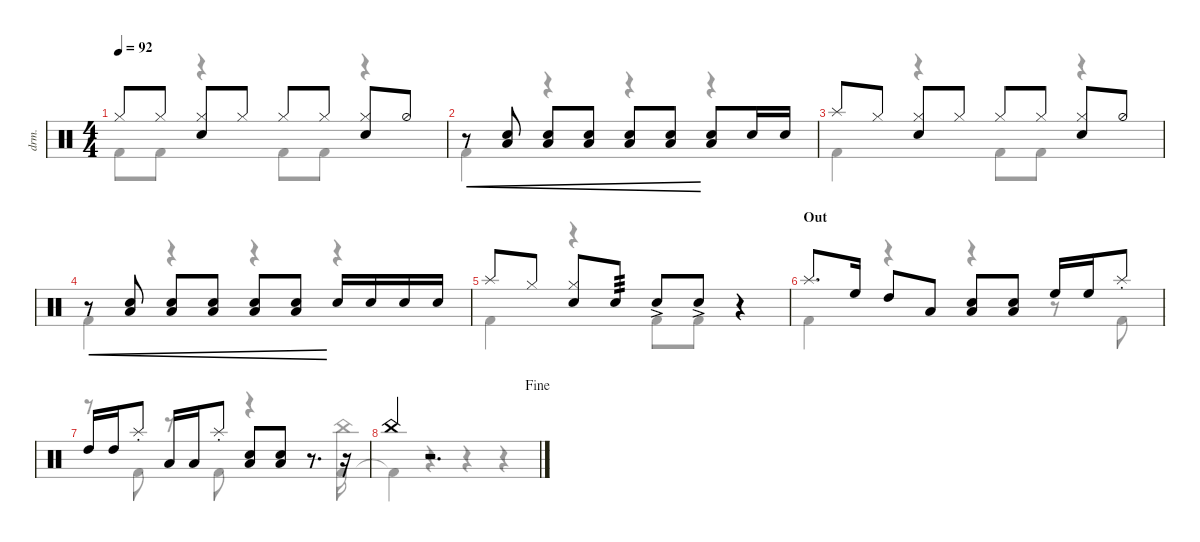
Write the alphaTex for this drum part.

\defaultSystemsLayout 4
\hideDynamics
\bracketExtendMode nobrackets
\track ("Drumkit" "drm.") {defaultSystemsLayout 4 instrument percussion}
\staff {score}
\articulation defaults
\voice
\ts (4 4)
\tempo 92
\clef neutral
\ks c "Hi-Hat (closed)".8{dy mf beam Up} "Hi-Hat (closed)".8{beam Up}
("Hi-Hat (closed)" "Snare (hit) 2").8{beam Up} "Hi-Hat (closed)".8{beam Up} "Hi-Hat (closed)".8{beam Up} "Hi-Hat (closed)".8{beam Up} ("Hi-Hat (closed)" "Snare (hit) 2").8{beam Up} "Hi-Hat (half)".8{beam Up} |
r.8{cre beam Up} ("Low Tom (hit)" "Snare (hit) 2").8{cre beam Up} ("Low Tom (hit)" "Snare (hit) 2").8{cre beam Up} ("Low Tom (hit)" "Snare (hit) 2").8{cre beam Up} ("Low Tom (hit)" "Snare (hit) 2").8{cre beam Up} ("Low Tom (hit)" "Snare (hit) 2").8{cre beam Up} ("Snare (hit) 2" "Low Tom (hit)").8{beam Up} "Snare (hit) 2".16{beam Up} "Snare (hit) 2".16{beam Up} |
"Splash (hit)".8{beam Up} "Hi-Hat (closed)".8{beam Up} ("Hi-Hat (closed)" "Snare (hit) 2").8{beam Up} "Hi-Hat (closed)".8{beam Up} "Hi-Hat (closed)".8{beam Up} "Hi-Hat (closed)".8{beam Up} ("Hi-Hat (closed)" "Snare (hit) 2").8{beam Up} "Hi-Hat (half)".8{beam Up} |
r.8{cre beam Up} ("Low Tom (hit)" "Snare (hit) 2").8{cre beam Up} ("Low Tom (hit)" "Snare (hit) 2").8{cre beam Up} ("Low Tom (hit)" "Snare (hit) 2").8{cre beam Up} ("Low Tom (hit)" "Snare (hit) 2").8{cre beam Up} ("Low Tom (hit)" "Snare (hit) 2").8{cre beam Up} "Snare (hit) 2".16{beam Up} "Snare (hit) 2".16{beam Up} "Snare (hit) 2".16{beam Up} "Snare (hit) 2".16{beam Up} |
"Splash (hit)".8{beam Up} "Hi-Hat (closed)".8{beam Up} ("Hi-Hat (closed)" "Snare (hit) 2").8{beam Up} "Snare (hit) 2".8{tp 3 beam Up} "Snare (hit) 2"{ac}.8{beam Up} "Snare (hit) 2"{ac}.8{beam Up} r.4{beam Up} |
\section ("" "Out")
"Splash (hit)".8{d beam Up} "High Floor Tom (hit)".16{beam Up} "High Tom (hit)".8{beam Up} "Low Tom (hit)".8{beam Up} ("Low Tom (hit)" "Snare (hit) 2").8{beam Up} ("Low Tom (hit)" "Snare (hit) 2").8{beam Up} "High Floor Tom (hit)".16{beam Up} "High Floor Tom (hit)".16{beam Up} "Splash (choke)".8{beam Up} |
"High Tom (hit)".16{beam Up} "High Tom (hit)".16{beam Up} "Splash (choke)".8{beam Up} "Low Tom (hit)".16{beam Up} "Low Tom (hit)".16{beam Up} "Splash (choke)".8{beam Up} ("Snare (hit) 2" "Low Tom (hit)").8{beam Up} ("Low Tom (hit)" "Snare (hit) 2").8{beam Up} r.8{d beam Up} r.16{beam Up} |
\jump fine "China (hit)".4{beam Up}
r.2{d beam Up}
\voice
\clef neutral
\ottava regular
\simile none
\ks c "Kick (hit) 2".8{dy mf beam Down} "Kick (hit) 2".8{beam Down}
r.4{beam Down} "Kick (hit) 2".8{beam Down} "Kick (hit) 2".8{beam Down} r.4{beam Down} |
"Kick (hit) 2".4{beam Down} r.4{beam Down} r.4{beam Down} r.4{beam Down} |
"Kick (hit) 2".4{beam Down} r.4{beam Down} "Kick (hit) 2".8{beam Down} "Kick (hit) 2".8{beam Down} r.4{beam Down} |
"Kick (hit) 2".4{beam Down} r.4{beam Down} r.4{beam Down} r.4{beam Down} |
"Kick (hit) 2".4{beam Down} r.4{beam Down} "Kick (hit) 2".8{beam Down} "Kick (hit) 2".8{beam Down} r.4{beam Down} |
"Kick (hit) 2".4{beam Down} r.4{beam Down} r.4{beam Down} r.8{beam Down} "Kick (hit) 2".8{beam Down} |
r.8{beam Down} "Kick (hit) 2".8{beam Down} r.8{beam Down} "Kick (hit) 2".8{beam Down} r.4{beam Down} r.8{d beam Down} ("Kick (hit) 2" "China (hit)").16{beam Down} |
"Kick (hit) 2"{t}.4{beam Down} r.4{beam Down} r.4{beam Down} r.4{beam Down}
